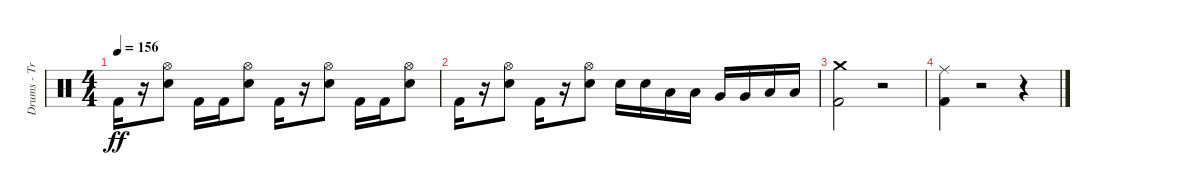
\track ("Drums - Travis" "Drums - Tr") {instrument percussion}
\staff {score}
\articulation defaults
\ts (4 4)
\tempo 156
\clef neutral
\ks c "Kick (hit) 2".16{dy ff}
r.16 ("Electric Snare (hit)" "Hi-Hat (open)").8 "Kick (hit) 2".16 "Kick (hit) 2".16 ("Electric Snare (hit)" "Hi-Hat (open)").8 "Kick (hit) 2".16 r.16 ("Electric Snare (hit)" "Hi-Hat (open)").8 "Kick (hit) 2".16 "Kick (hit) 2".16 ("Electric Snare (hit)" "Hi-Hat (open)").8 |
"Kick (hit) 2".16 r.16 ("Electric Snare (hit)" "Hi-Hat (open)").8 "Kick (hit) 2".16 r.16 ("Electric Snare (hit)" "Hi-Hat (open)").8 "Electric Snare (hit)".16 "Electric Snare (hit)".16 "Low Tom (hit)".16 "Low Tom (hit)".16 "Very Low Tom (hit)".16 "Very Low Tom (hit)".16 "Low Floor Tom (hit)".16 "Low Floor Tom (hit)".16 |
("Kick (hit) 2" "Crash medium (hit)").2 r.2 |
("Kick (hit) 2" "Ride (middle)").4 r.2 r.4
